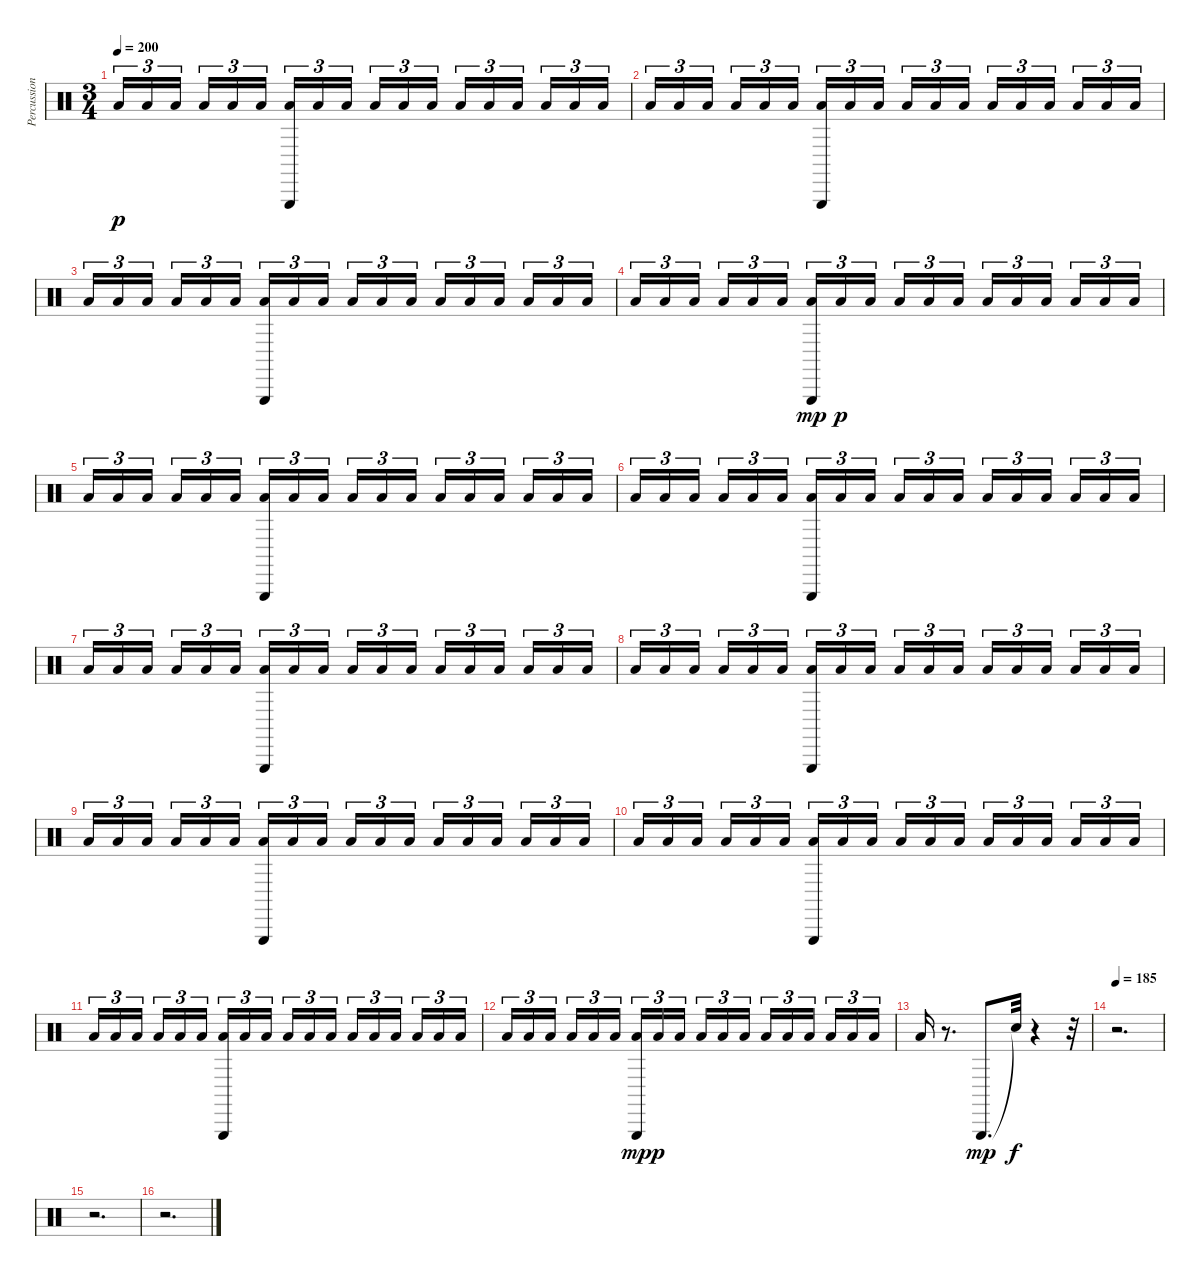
\track ("Percussion." "Percussion") {instrument percussion}
\staff {score}
\articulation defaults
\ts (3 4)
\tempo 200
\clef neutral
\ks c "Low Tom (hit)".16{tu (3 2) dy p} "Low Tom (hit)".16{tu (3 2)} "Low Tom (hit)".16{tu (3 2) beam splitsecondary} "Low Tom (hit)".16{tu (3 2)} "Low Tom (hit)".16{tu (3 2)} "Low Tom (hit)".16{tu (3 2)}
("Triangle (hit)" "Low Tom (hit)").16{tu (3 2)} "Low Tom (hit)".16{tu (3 2)} "Low Tom (hit)".16{tu (3 2) beam splitsecondary} "Low Tom (hit)".16{tu (3 2)} "Low Tom (hit)".16{tu (3 2)} "Low Tom (hit)".16{tu (3 2)} "Low Tom (hit)".16{tu (3 2)} "Low Tom (hit)".16{tu (3 2)} "Low Tom (hit)".16{tu (3 2) beam splitsecondary} "Low Tom (hit)".16{tu (3 2)} "Low Tom (hit)".16{tu (3 2)} "Low Tom (hit)".16{tu (3 2)} |
"Low Tom (hit)".16{tu (3 2)} "Low Tom (hit)".16{tu (3 2)} "Low Tom (hit)".16{tu (3 2) beam splitsecondary} "Low Tom (hit)".16{tu (3 2)} "Low Tom (hit)".16{tu (3 2)} "Low Tom (hit)".16{tu (3 2)} ("Triangle (hit)" "Low Tom (hit)").16{tu (3 2)} "Low Tom (hit)".16{tu (3 2)} "Low Tom (hit)".16{tu (3 2) beam splitsecondary} "Low Tom (hit)".16{tu (3 2)} "Low Tom (hit)".16{tu (3 2)} "Low Tom (hit)".16{tu (3 2)} "Low Tom (hit)".16{tu (3 2)} "Low Tom (hit)".16{tu (3 2)} "Low Tom (hit)".16{tu (3 2) beam splitsecondary} "Low Tom (hit)".16{tu (3 2)} "Low Tom (hit)".16{tu (3 2)} "Low Tom (hit)".16{tu (3 2)} |
"Low Tom (hit)".16{tu (3 2)} "Low Tom (hit)".16{tu (3 2)} "Low Tom (hit)".16{tu (3 2) beam splitsecondary} "Low Tom (hit)".16{tu (3 2)} "Low Tom (hit)".16{tu (3 2)} "Low Tom (hit)".16{tu (3 2)} ("Triangle (hit)" "Low Tom (hit)").16{tu (3 2)} "Low Tom (hit)".16{tu (3 2)} "Low Tom (hit)".16{tu (3 2) beam splitsecondary} "Low Tom (hit)".16{tu (3 2)} "Low Tom (hit)".16{tu (3 2)} "Low Tom (hit)".16{tu (3 2)} "Low Tom (hit)".16{tu (3 2)} "Low Tom (hit)".16{tu (3 2)} "Low Tom (hit)".16{tu (3 2) beam splitsecondary} "Low Tom (hit)".16{tu (3 2)} "Low Tom (hit)".16{tu (3 2)} "Low Tom (hit)".16{tu (3 2)} |
"Low Tom (hit)".16{tu (3 2)} "Low Tom (hit)".16{tu (3 2)} "Low Tom (hit)".16{tu (3 2) beam splitsecondary} "Low Tom (hit)".16{tu (3 2)} "Low Tom (hit)".16{tu (3 2)} "Low Tom (hit)".16{tu (3 2)} ("Low Tom (hit)" "Triangle (hit)").16{tu (3 2) dy mp} "Low Tom (hit)".16{tu (3 2) dy p} "Low Tom (hit)".16{tu (3 2) beam splitsecondary} "Low Tom (hit)".16{tu (3 2)} "Low Tom (hit)".16{tu (3 2)} "Low Tom (hit)".16{tu (3 2)} "Low Tom (hit)".16{tu (3 2)} "Low Tom (hit)".16{tu (3 2)} "Low Tom (hit)".16{tu (3 2) beam splitsecondary} "Low Tom (hit)".16{tu (3 2)} "Low Tom (hit)".16{tu (3 2)} "Low Tom (hit)".16{tu (3 2)} |
"Low Tom (hit)".16{tu (3 2)} "Low Tom (hit)".16{tu (3 2)} "Low Tom (hit)".16{tu (3 2) beam splitsecondary} "Low Tom (hit)".16{tu (3 2)} "Low Tom (hit)".16{tu (3 2)} "Low Tom (hit)".16{tu (3 2)} ("Triangle (hit)" "Low Tom (hit)").16{tu (3 2)} "Low Tom (hit)".16{tu (3 2)} "Low Tom (hit)".16{tu (3 2) beam splitsecondary} "Low Tom (hit)".16{tu (3 2)} "Low Tom (hit)".16{tu (3 2)} "Low Tom (hit)".16{tu (3 2)} "Low Tom (hit)".16{tu (3 2)} "Low Tom (hit)".16{tu (3 2)} "Low Tom (hit)".16{tu (3 2) beam splitsecondary} "Low Tom (hit)".16{tu (3 2)} "Low Tom (hit)".16{tu (3 2)} "Low Tom (hit)".16{tu (3 2)} |
"Low Tom (hit)".16{tu (3 2)} "Low Tom (hit)".16{tu (3 2)} "Low Tom (hit)".16{tu (3 2) beam splitsecondary} "Low Tom (hit)".16{tu (3 2)} "Low Tom (hit)".16{tu (3 2)} "Low Tom (hit)".16{tu (3 2)} ("Triangle (hit)" "Low Tom (hit)").16{tu (3 2)} "Low Tom (hit)".16{tu (3 2)} "Low Tom (hit)".16{tu (3 2) beam splitsecondary} "Low Tom (hit)".16{tu (3 2)} "Low Tom (hit)".16{tu (3 2)} "Low Tom (hit)".16{tu (3 2)} "Low Tom (hit)".16{tu (3 2)} "Low Tom (hit)".16{tu (3 2)} "Low Tom (hit)".16{tu (3 2) beam splitsecondary} "Low Tom (hit)".16{tu (3 2)} "Low Tom (hit)".16{tu (3 2)} "Low Tom (hit)".16{tu (3 2)} |
"Low Tom (hit)".16{tu (3 2)} "Low Tom (hit)".16{tu (3 2)} "Low Tom (hit)".16{tu (3 2) beam splitsecondary} "Low Tom (hit)".16{tu (3 2)} "Low Tom (hit)".16{tu (3 2)} "Low Tom (hit)".16{tu (3 2)} ("Triangle (hit)" "Low Tom (hit)").16{tu (3 2)} "Low Tom (hit)".16{tu (3 2)} "Low Tom (hit)".16{tu (3 2) beam splitsecondary} "Low Tom (hit)".16{tu (3 2)} "Low Tom (hit)".16{tu (3 2)} "Low Tom (hit)".16{tu (3 2)} "Low Tom (hit)".16{tu (3 2)} "Low Tom (hit)".16{tu (3 2)} "Low Tom (hit)".16{tu (3 2) beam splitsecondary} "Low Tom (hit)".16{tu (3 2)} "Low Tom (hit)".16{tu (3 2)} "Low Tom (hit)".16{tu (3 2)} |
"Low Tom (hit)".16{tu (3 2)} "Low Tom (hit)".16{tu (3 2)} "Low Tom (hit)".16{tu (3 2) beam splitsecondary} "Low Tom (hit)".16{tu (3 2)} "Low Tom (hit)".16{tu (3 2)} "Low Tom (hit)".16{tu (3 2)} ("Triangle (hit)" "Low Tom (hit)").16{tu (3 2)} "Low Tom (hit)".16{tu (3 2)} "Low Tom (hit)".16{tu (3 2) beam splitsecondary} "Low Tom (hit)".16{tu (3 2)} "Low Tom (hit)".16{tu (3 2)} "Low Tom (hit)".16{tu (3 2)} "Low Tom (hit)".16{tu (3 2)} "Low Tom (hit)".16{tu (3 2)} "Low Tom (hit)".16{tu (3 2) beam splitsecondary} "Low Tom (hit)".16{tu (3 2)} "Low Tom (hit)".16{tu (3 2)} "Low Tom (hit)".16{tu (3 2)} |
"Low Tom (hit)".16{tu (3 2)} "Low Tom (hit)".16{tu (3 2)} "Low Tom (hit)".16{tu (3 2) beam splitsecondary} "Low Tom (hit)".16{tu (3 2)} "Low Tom (hit)".16{tu (3 2)} "Low Tom (hit)".16{tu (3 2)} ("Triangle (hit)" "Low Tom (hit)").16{tu (3 2)} "Low Tom (hit)".16{tu (3 2)} "Low Tom (hit)".16{tu (3 2) beam splitsecondary} "Low Tom (hit)".16{tu (3 2)} "Low Tom (hit)".16{tu (3 2)} "Low Tom (hit)".16{tu (3 2)} "Low Tom (hit)".16{tu (3 2)} "Low Tom (hit)".16{tu (3 2)} "Low Tom (hit)".16{tu (3 2) beam splitsecondary} "Low Tom (hit)".16{tu (3 2)} "Low Tom (hit)".16{tu (3 2)} "Low Tom (hit)".16{tu (3 2)} |
"Low Tom (hit)".16{tu (3 2)} "Low Tom (hit)".16{tu (3 2)} "Low Tom (hit)".16{tu (3 2) beam splitsecondary} "Low Tom (hit)".16{tu (3 2)} "Low Tom (hit)".16{tu (3 2)} "Low Tom (hit)".16{tu (3 2)} ("Triangle (hit)" "Low Tom (hit)").16{tu (3 2)} "Low Tom (hit)".16{tu (3 2)} "Low Tom (hit)".16{tu (3 2) beam splitsecondary} "Low Tom (hit)".16{tu (3 2)} "Low Tom (hit)".16{tu (3 2)} "Low Tom (hit)".16{tu (3 2)} "Low Tom (hit)".16{tu (3 2)} "Low Tom (hit)".16{tu (3 2)} "Low Tom (hit)".16{tu (3 2) beam splitsecondary} "Low Tom (hit)".16{tu (3 2)} "Low Tom (hit)".16{tu (3 2)} "Low Tom (hit)".16{tu (3 2)} |
"Low Tom (hit)".16{tu (3 2)} "Low Tom (hit)".16{tu (3 2)} "Low Tom (hit)".16{tu (3 2) beam splitsecondary} "Low Tom (hit)".16{tu (3 2)} "Low Tom (hit)".16{tu (3 2)} "Low Tom (hit)".16{tu (3 2)} ("Triangle (hit)" "Low Tom (hit)").16{tu (3 2)} "Low Tom (hit)".16{tu (3 2)} "Low Tom (hit)".16{tu (3 2) beam splitsecondary} "Low Tom (hit)".16{tu (3 2)} "Low Tom (hit)".16{tu (3 2)} "Low Tom (hit)".16{tu (3 2)} "Low Tom (hit)".16{tu (3 2)} "Low Tom (hit)".16{tu (3 2)} "Low Tom (hit)".16{tu (3 2) beam splitsecondary} "Low Tom (hit)".16{tu (3 2)} "Low Tom (hit)".16{tu (3 2)} "Low Tom (hit)".16{tu (3 2)} |
"Low Tom (hit)".16{tu (3 2)} "Low Tom (hit)".16{tu (3 2)} "Low Tom (hit)".16{tu (3 2) beam splitsecondary} "Low Tom (hit)".16{tu (3 2)} "Low Tom (hit)".16{tu (3 2)} "Low Tom (hit)".16{tu (3 2)} ("Low Tom (hit)" "Triangle (hit)").16{tu (3 2) dy mp} "Low Tom (hit)".16{tu (3 2) dy p} "Low Tom (hit)".16{tu (3 2) beam splitsecondary} "Low Tom (hit)".16{tu (3 2)} "Low Tom (hit)".16{tu (3 2)} "Low Tom (hit)".16{tu (3 2)} "Low Tom (hit)".16{tu (3 2)} "Low Tom (hit)".16{tu (3 2)} "Low Tom (hit)".16{tu (3 2) beam splitsecondary} "Low Tom (hit)".16{tu (3 2)} "Low Tom (hit)".16{tu (3 2)} "Low Tom (hit)".16{tu (3 2)} |
"Low Tom (hit)".16 r.8{d} "Triangle (hit)".8{d dy mp} "Snare (hit)"{t}.32{dy f} r.4 r.32 |
\tempo 185
r.2{d} |
r.2{d} |
r.2{d}
